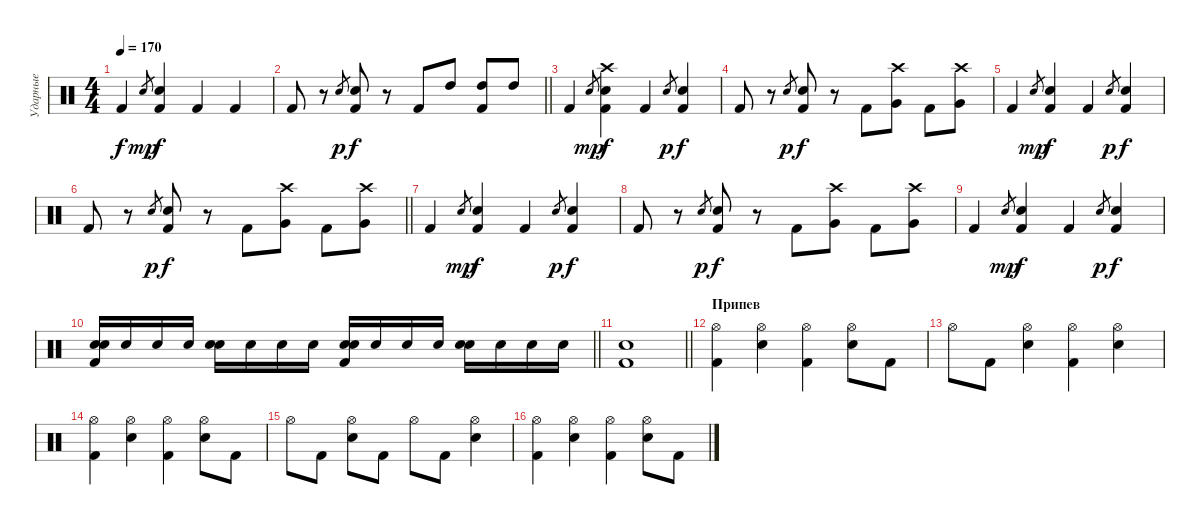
\track ("Ударные" "Ударные") {instrument percussion}
\staff {score}
\articulation defaults
\ts (4 4)
\tempo 170
\clef neutral
\ks c "Kick (hit) 2".4{dy f} "Electric Snare (hit)".8{gr dy mp}
("Electric Snare (hit)" "Kick (hit) 2").4{dy f} "Kick (hit) 2".4 "Kick (hit) 2".4 |
\barLineRight lightlight "Kick (hit) 2".8
r.8 "Electric Snare (hit)".8{gr dy p} ("Electric Snare (hit)" "Kick (hit) 2").8{dy f} r.8 "Kick (hit) 2".8 "High Tom (hit)".8 ("High Tom (hit)" "Kick (hit) 2").8 "High Tom (hit)".8 |
"Kick (hit) 2".4 "Electric Snare (hit)".8{gr dy mp} ("Electric Snare (hit)" "Kick (hit) 2" "Crash high (hit)").4{dy f} "Kick (hit) 2".4 "Electric Snare (hit)".8{gr dy p} ("Electric Snare (hit)" "Kick (hit) 2").4{dy f} |
"Kick (hit) 2".8 r.8 "Electric Snare (hit)".8{gr dy p} ("Electric Snare (hit)" "Kick (hit) 2").8{dy f} r.8 "Kick (hit) 2".8 ("Very Low Tom (hit)" "Crash high (hit)").8 "Kick (hit) 2".8 ("Very Low Tom (hit)" "Crash high (hit)").8 |
"Kick (hit) 2".4 "Electric Snare (hit)".8{gr dy mp} ("Electric Snare (hit)" "Kick (hit) 2").4{dy f} "Kick (hit) 2".4 "Electric Snare (hit)".8{gr dy p} ("Electric Snare (hit)" "Kick (hit) 2").4{dy f} |
\barLineRight lightlight "Kick (hit) 2".8
r.8 "Electric Snare (hit)".8{gr dy p} ("Electric Snare (hit)" "Kick (hit) 2").8{dy f} r.8 "Kick (hit) 2".8 ("Very Low Tom (hit)" "Crash high (hit)").8 "Kick (hit) 2".8 ("Very Low Tom (hit)" "Crash high (hit)").8 |
"Kick (hit) 2".4 "Electric Snare (hit)".8{gr dy mp} ("Electric Snare (hit)" "Kick (hit) 2").4{dy f} "Kick (hit) 2".4 "Electric Snare (hit)".8{gr dy p} ("Electric Snare (hit)" "Kick (hit) 2").4{dy f} |
"Kick (hit) 2".8 r.8 "Electric Snare (hit)".8{gr dy p} ("Electric Snare (hit)" "Kick (hit) 2").8{dy f} r.8 "Kick (hit) 2".8 ("Very Low Tom (hit)" "Crash high (hit)").8 "Kick (hit) 2".8 ("Very Low Tom (hit)" "Crash high (hit)").8 |
"Kick (hit) 2".4 "Electric Snare (hit)".8{gr dy mp} ("Electric Snare (hit)" "Kick (hit) 2").4{dy f} "Kick (hit) 2".4 "Electric Snare (hit)".8{gr dy p} ("Electric Snare (hit)" "Kick (hit) 2").4{dy f} |
\barLineRight lightlight
("Snare (hit) 2" "Electric Snare (hit)" "Kick (hit) 2").16 "Snare (hit) 2".16 "Snare (hit) 2".16 "Snare (hit) 2".16 ("Snare (hit) 2" "Electric Snare (hit)").16 "Snare (hit) 2".16 "Snare (hit) 2".16 "Snare (hit) 2".16 ("Snare (hit) 2" "Electric Snare (hit)" "Kick (hit) 2").16 "Snare (hit) 2".16 "Snare (hit) 2".16 "Snare (hit) 2".16 ("Snare (hit) 2" "Electric Snare (hit)").16 "Snare (hit) 2".16 "Snare (hit) 2".16 "Snare (hit) 2".16 |
\barLineRight lightlight
("Electric Snare (hit)" "Kick (hit) 2").1 |
\section ("" "Припев")
("Hi-Hat (open)" "Kick (hit) 2").4 ("Hi-Hat (open)" "Electric Snare (hit)").4 ("Hi-Hat (open)" "Kick (hit) 2").4 ("Hi-Hat (open)" "Electric Snare (hit)").8 "Kick (hit) 2".8 |
"Hi-Hat (open)".8 "Kick (hit) 2".8 ("Hi-Hat (open)" "Electric Snare (hit)").4 ("Hi-Hat (open)" "Kick (hit) 2").4 ("Hi-Hat (open)" "Electric Snare (hit)").4 |
("Hi-Hat (open)" "Kick (hit) 2").4 ("Hi-Hat (open)" "Electric Snare (hit)").4 ("Hi-Hat (open)" "Kick (hit) 2").4 ("Hi-Hat (open)" "Electric Snare (hit)").8 "Kick (hit) 2".8 |
"Hi-Hat (open)".8 "Kick (hit) 2".8 ("Hi-Hat (open)" "Electric Snare (hit)").8 "Kick (hit) 2".8 "Hi-Hat (open)".8 "Kick (hit) 2".8 ("Hi-Hat (open)" "Electric Snare (hit)").4 |
("Hi-Hat (open)" "Kick (hit) 2").4 ("Hi-Hat (open)" "Electric Snare (hit)").4 ("Hi-Hat (open)" "Kick (hit) 2").4 ("Hi-Hat (open)" "Electric Snare (hit)").8 "Kick (hit) 2".8
